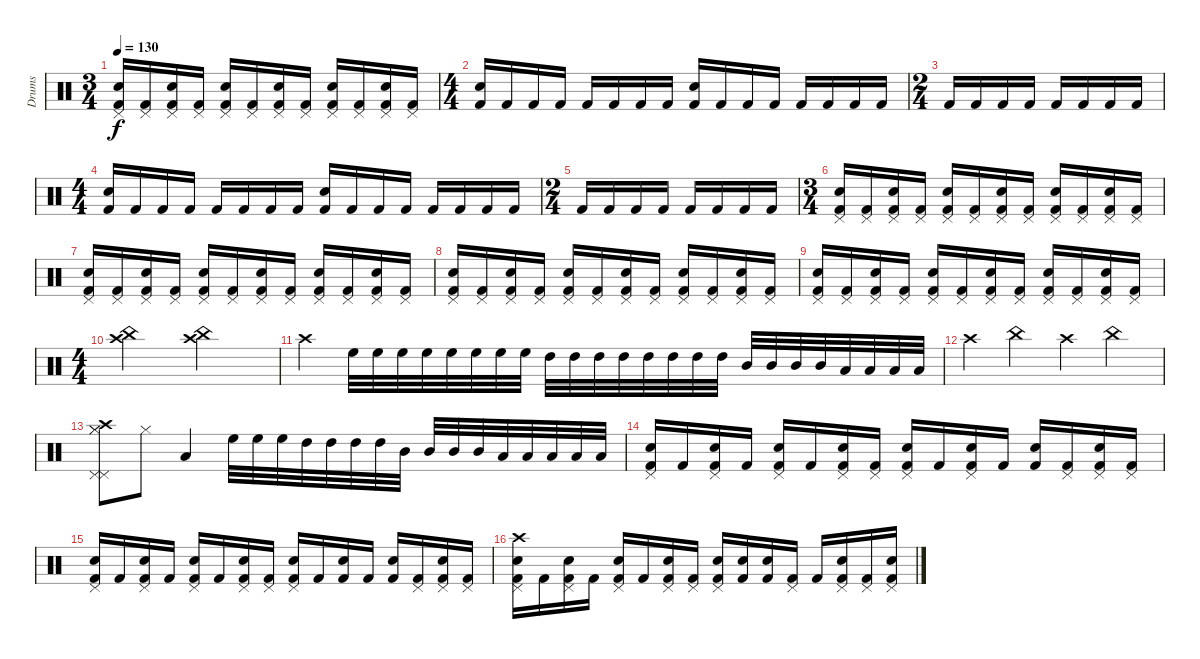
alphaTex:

\track ("Drums" "Drums") {instrument percussion}
\staff {score}
\articulation defaults
\ts (3 4)
\tempo 130
\clef neutral
\ks c
("Electric Snare (hit)" "Pedal Hi-Hat (hit)" "Kick (hit) 2").16{dy f} ("Pedal Hi-Hat (hit)" "Kick (hit) 2").16 ("Electric Snare (hit)" "Pedal Hi-Hat (hit)" "Kick (hit) 2").16 ("Pedal Hi-Hat (hit)" "Kick (hit) 2").16 ("Electric Snare (hit)" "Pedal Hi-Hat (hit)" "Kick (hit) 2").16 ("Pedal Hi-Hat (hit)" "Kick (hit) 2").16 ("Electric Snare (hit)" "Pedal Hi-Hat (hit)" "Kick (hit) 2").16 ("Pedal Hi-Hat (hit)" "Kick (hit) 2").16 ("Electric Snare (hit)" "Pedal Hi-Hat (hit)" "Kick (hit) 2").16 ("Pedal Hi-Hat (hit)" "Kick (hit) 2").16 ("Electric Snare (hit)" "Pedal Hi-Hat (hit)" "Kick (hit) 2").16 ("Pedal Hi-Hat (hit)" "Kick (hit) 2").16 |
\ts (4 4)
("Electric Snare (hit)" "Kick (hit) 2").16 "Kick (hit) 2".16 "Kick (hit) 2".16 "Kick (hit) 2".16 "Kick (hit) 2".16 "Kick (hit) 2".16 "Kick (hit) 2".16 "Kick (hit) 2".16 ("Electric Snare (hit)" "Kick (hit) 2").16 "Kick (hit) 2".16 "Kick (hit) 2".16 "Kick (hit) 2".16 "Kick (hit) 2".16 "Kick (hit) 2".16 "Kick (hit) 2".16 "Kick (hit) 2".16 |
\ts (2 4)
"Kick (hit) 2".16 "Kick (hit) 2".16 "Kick (hit) 2".16 "Kick (hit) 2".16 "Kick (hit) 2".16 "Kick (hit) 2".16 "Kick (hit) 2".16 "Kick (hit) 2".16 |
\ts (4 4)
("Electric Snare (hit)" "Kick (hit) 2").16 "Kick (hit) 2".16 "Kick (hit) 2".16 "Kick (hit) 2".16 "Kick (hit) 2".16 "Kick (hit) 2".16 "Kick (hit) 2".16 "Kick (hit) 2".16 ("Electric Snare (hit)" "Kick (hit) 2").16 "Kick (hit) 2".16 "Kick (hit) 2".16 "Kick (hit) 2".16 "Kick (hit) 2".16 "Kick (hit) 2".16 "Kick (hit) 2".16 "Kick (hit) 2".16 |
\ts (2 4)
"Kick (hit) 2".16 "Kick (hit) 2".16 "Kick (hit) 2".16 "Kick (hit) 2".16 "Kick (hit) 2".16 "Kick (hit) 2".16 "Kick (hit) 2".16 "Kick (hit) 2".16 |
\ts (3 4)
("Electric Snare (hit)" "Pedal Hi-Hat (hit)" "Kick (hit) 2").16 ("Pedal Hi-Hat (hit)" "Kick (hit) 2").16 ("Electric Snare (hit)" "Pedal Hi-Hat (hit)" "Kick (hit) 2").16 ("Pedal Hi-Hat (hit)" "Kick (hit) 2").16 ("Electric Snare (hit)" "Pedal Hi-Hat (hit)" "Kick (hit) 2").16 ("Pedal Hi-Hat (hit)" "Kick (hit) 2").16 ("Electric Snare (hit)" "Pedal Hi-Hat (hit)" "Kick (hit) 2").16 ("Pedal Hi-Hat (hit)" "Kick (hit) 2").16 ("Electric Snare (hit)" "Pedal Hi-Hat (hit)" "Kick (hit) 2").16 ("Pedal Hi-Hat (hit)" "Kick (hit) 2").16 ("Electric Snare (hit)" "Pedal Hi-Hat (hit)" "Kick (hit) 2").16 ("Pedal Hi-Hat (hit)" "Kick (hit) 2").16 |
("Electric Snare (hit)" "Pedal Hi-Hat (hit)" "Kick (hit) 2").16 ("Pedal Hi-Hat (hit)" "Kick (hit) 2").16 ("Electric Snare (hit)" "Pedal Hi-Hat (hit)" "Kick (hit) 2").16 ("Pedal Hi-Hat (hit)" "Kick (hit) 2").16 ("Electric Snare (hit)" "Pedal Hi-Hat (hit)" "Kick (hit) 2").16 ("Pedal Hi-Hat (hit)" "Kick (hit) 2").16 ("Electric Snare (hit)" "Pedal Hi-Hat (hit)" "Kick (hit) 2").16 ("Pedal Hi-Hat (hit)" "Kick (hit) 2").16 ("Electric Snare (hit)" "Pedal Hi-Hat (hit)" "Kick (hit) 2").16 ("Pedal Hi-Hat (hit)" "Kick (hit) 2").16 ("Electric Snare (hit)" "Pedal Hi-Hat (hit)" "Kick (hit) 2").16 ("Pedal Hi-Hat (hit)" "Kick (hit) 2").16 |
("Electric Snare (hit)" "Pedal Hi-Hat (hit)" "Kick (hit) 2").16 ("Pedal Hi-Hat (hit)" "Kick (hit) 2").16 ("Electric Snare (hit)" "Pedal Hi-Hat (hit)" "Kick (hit) 2").16 ("Pedal Hi-Hat (hit)" "Kick (hit) 2").16 ("Electric Snare (hit)" "Pedal Hi-Hat (hit)" "Kick (hit) 2").16 ("Pedal Hi-Hat (hit)" "Kick (hit) 2").16 ("Electric Snare (hit)" "Pedal Hi-Hat (hit)" "Kick (hit) 2").16 ("Pedal Hi-Hat (hit)" "Kick (hit) 2").16 ("Electric Snare (hit)" "Pedal Hi-Hat (hit)" "Kick (hit) 2").16 ("Pedal Hi-Hat (hit)" "Kick (hit) 2").16 ("Electric Snare (hit)" "Pedal Hi-Hat (hit)" "Kick (hit) 2").16 ("Pedal Hi-Hat (hit)" "Kick (hit) 2").16 |
("Electric Snare (hit)" "Pedal Hi-Hat (hit)" "Kick (hit) 2").16 ("Pedal Hi-Hat (hit)" "Kick (hit) 2").16 ("Electric Snare (hit)" "Pedal Hi-Hat (hit)" "Kick (hit) 2").16 ("Pedal Hi-Hat (hit)" "Kick (hit) 2").16 ("Electric Snare (hit)" "Pedal Hi-Hat (hit)" "Kick (hit) 2").16 ("Pedal Hi-Hat (hit)" "Kick (hit) 2").16 ("Electric Snare (hit)" "Pedal Hi-Hat (hit)" "Kick (hit) 2").16 ("Pedal Hi-Hat (hit)" "Kick (hit) 2").16 ("Electric Snare (hit)" "Pedal Hi-Hat (hit)" "Kick (hit) 2").16 ("Pedal Hi-Hat (hit)" "Kick (hit) 2").16 ("Electric Snare (hit)" "Pedal Hi-Hat (hit)" "Kick (hit) 2").16 ("Pedal Hi-Hat (hit)" "Kick (hit) 2").16 |
\ts (4 4)
("Crash high (hit)" "China (hit)").2 ("Crash high (hit)" "China (hit)").2 |
"Crash high (hit)".4 "High Floor Tom (hit)".32 "High Floor Tom (hit)".32 "High Floor Tom (hit)".32 "High Floor Tom (hit)".32 "High Floor Tom (hit)".32 "High Floor Tom (hit)".32 "High Floor Tom (hit)".32 "High Floor Tom (hit)".32 "High Tom (hit)".32 "High Tom (hit)".32 "High Tom (hit)".32 "High Tom (hit)".32 "High Tom (hit)".32 "High Tom (hit)".32 "High Tom (hit)".32 "High Tom (hit)".32 "Mid Tom (hit)".32 "Mid Tom (hit)".32 "Mid Tom (hit)".32 "Mid Tom (hit)".32 "Low Floor Tom (hit)".32 "Low Floor Tom (hit)".32 "Low Floor Tom (hit)".32 "Low Floor Tom (hit)".32 |
"Crash high (hit)".4 "China (hit)".4 "Crash high (hit)".4 "China (hit)".4 |
("Hi-Hat (closed)" "Hi-Hat (closed)" "Pedal Hi-Hat (hit)" "Pedal Hi-Hat (hit)" "Crash high (hit)").8 "Hi-Hat (closed)".8 "Low Floor Tom (hit)".4 "High Floor Tom (hit)".32 "High Floor Tom (hit)".32 "High Floor Tom (hit)".32 "High Tom (hit)".32 "High Tom (hit)".32 "High Tom (hit)".32 "High Tom (hit)".32 "Mid Tom (hit)".32 "Mid Tom (hit)".32 "Mid Tom (hit)".32 "Mid Tom (hit)".32 "Low Tom (hit)".32 "Low Tom (hit)".32 "Low Tom (hit)".32 "Low Tom (hit)".32 "Low Floor Tom (hit)".32 |
("Pedal Hi-Hat (hit)" "Electric Snare (hit)" "Kick (hit) 2").16 "Kick (hit) 2".16 ("Pedal Hi-Hat (hit)" "Electric Snare (hit)" "Kick (hit) 2").16 "Kick (hit) 2".16 ("Pedal Hi-Hat (hit)" "Electric Snare (hit)" "Kick (hit) 2").16 "Kick (hit) 2".16 ("Pedal Hi-Hat (hit)" "Electric Snare (hit)" "Kick (hit) 2").16 ("Pedal Hi-Hat (hit)" "Kick (hit) 2").16 ("Pedal Hi-Hat (hit)" "Electric Snare (hit)" "Kick (hit) 2").16 "Kick (hit) 2".16 ("Pedal Hi-Hat (hit)" "Electric Snare (hit)" "Kick (hit) 2").16 "Kick (hit) 2".16 ("Electric Snare (hit)" "Kick (hit) 2").16 ("Pedal Hi-Hat (hit)" "Kick (hit) 2").16 ("Pedal Hi-Hat (hit)" "Electric Snare (hit)" "Kick (hit) 2").16 ("Pedal Hi-Hat (hit)" "Kick (hit) 2").16 |
("Pedal Hi-Hat (hit)" "Electric Snare (hit)" "Kick (hit) 2").16 "Kick (hit) 2".16 ("Pedal Hi-Hat (hit)" "Electric Snare (hit)" "Kick (hit) 2").16 "Kick (hit) 2".16 ("Pedal Hi-Hat (hit)" "Electric Snare (hit)" "Kick (hit) 2").16 "Kick (hit) 2".16 ("Pedal Hi-Hat (hit)" "Electric Snare (hit)" "Kick (hit) 2").16 ("Pedal Hi-Hat (hit)" "Kick (hit) 2").16 ("Pedal Hi-Hat (hit)" "Electric Snare (hit)" "Kick (hit) 2").16 "Kick (hit) 2".16 ("Electric Snare (hit)" "Kick (hit) 2").16 "Kick (hit) 2".16 ("Electric Snare (hit)" "Kick (hit) 2").16 ("Pedal Hi-Hat (hit)" "Kick (hit) 2").16 ("Pedal Hi-Hat (hit)" "Electric Snare (hit)" "Kick (hit) 2").16 ("Pedal Hi-Hat (hit)" "Kick (hit) 2").16 |
("Pedal Hi-Hat (hit)" "Crash high (hit)" "Electric Snare (hit)" "Kick (hit) 2").16 "Kick (hit) 2".16 ("Pedal Hi-Hat (hit)" "Electric Snare (hit)" "Kick (hit) 2").16 "Kick (hit) 2".16 ("Pedal Hi-Hat (hit)" "Electric Snare (hit)" "Kick (hit) 2").16 "Kick (hit) 2".16 ("Pedal Hi-Hat (hit)" "Electric Snare (hit)" "Kick (hit) 2").16 ("Pedal Hi-Hat (hit)" "Kick (hit) 2").16 ("Pedal Hi-Hat (hit)" "Electric Snare (hit)" "Kick (hit) 2").16 ("Snare (hit)" "Kick (hit) 2").16 ("Electric Snare (hit)" "Kick (hit) 2").16 ("Pedal Hi-Hat (hit)" "Kick (hit) 2").16 "Kick (hit) 2".16 ("Pedal Hi-Hat (hit)" "Electric Snare (hit)" "Kick (hit) 2").16 ("Pedal Hi-Hat (hit)" "Kick (hit) 2").16 ("Pedal Hi-Hat (hit)" "Electric Snare (hit)" "Kick (hit) 2").16
